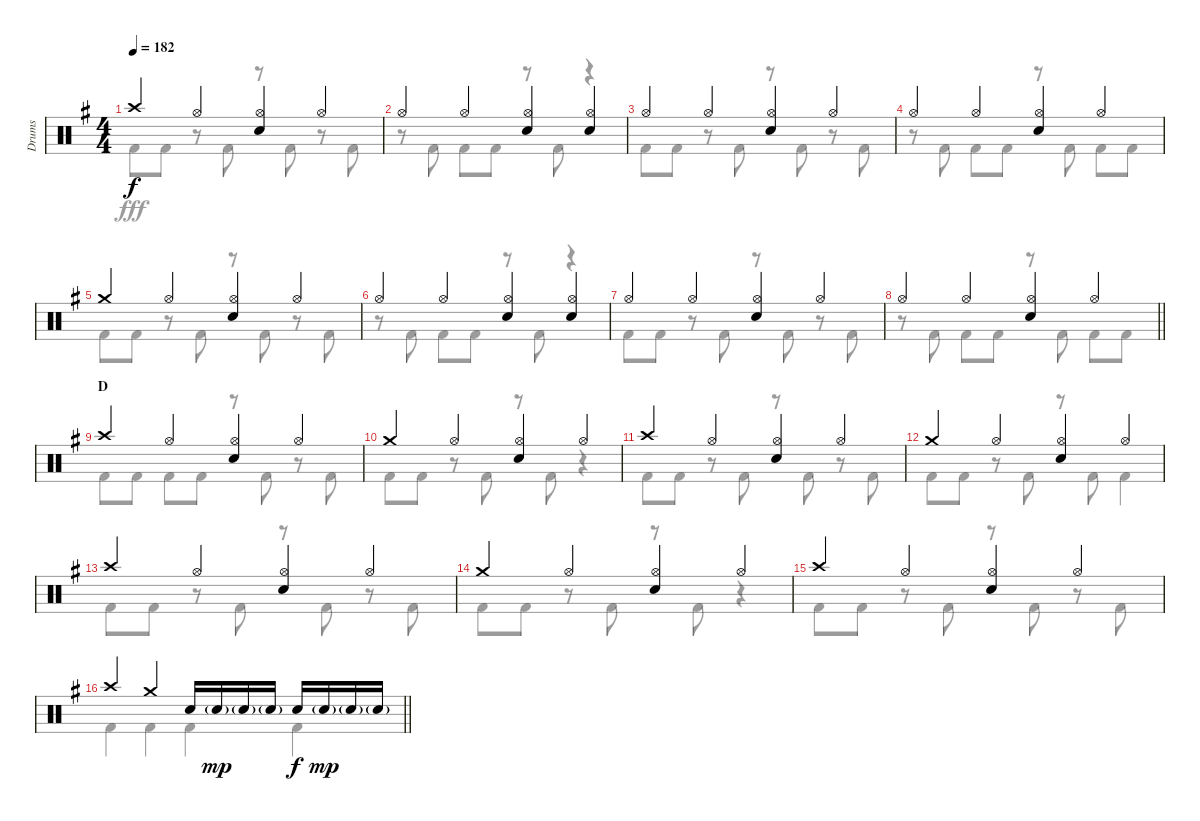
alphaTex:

\track ("Drums" "Drums") {instrument percussion}
\staff {score}
\articulation defaults
\voice
\ts (4 4)
\tempo 182
\clef neutral
\ks g "Crash high (hit)".4{dy f} "Hi-Hat (open)".4
("Hi-Hat (open)" "Snare (hit) 2").4 "Hi-Hat (open)".4 |
"Hi-Hat (open)".4 "Hi-Hat (open)".4 ("Hi-Hat (open)" "Snare (hit) 2").4 ("Hi-Hat (open)" "Snare (hit) 2").4 |
"Hi-Hat (open)".4 "Hi-Hat (open)".4 ("Hi-Hat (open)" "Snare (hit) 2").4 "Hi-Hat (open)".4 |
"Hi-Hat (open)".4 "Hi-Hat (open)".4 ("Hi-Hat (open)" "Snare (hit) 2").4 "Hi-Hat (open)".4 |
"Crash medium (hit)".4 "Hi-Hat (open)".4 ("Hi-Hat (open)" "Snare (hit) 2").4 "Hi-Hat (open)".4 |
"Hi-Hat (open)".4 "Hi-Hat (open)".4 ("Hi-Hat (open)" "Snare (hit) 2").4 ("Hi-Hat (open)" "Snare (hit) 2").4 |
"Hi-Hat (open)".4 "Hi-Hat (open)".4 ("Hi-Hat (open)" "Snare (hit) 2").4 "Hi-Hat (open)".4 |
\barLineRight lightlight "Hi-Hat (open)".4 "Hi-Hat (open)".4
("Hi-Hat (open)" "Snare (hit) 2").4 "Hi-Hat (open)".4 |
\section ("" "D")
"Crash high (hit)".4 "Hi-Hat (open)".4 ("Hi-Hat (open)" "Snare (hit) 2").4 "Hi-Hat (open)".4 |
"Crash medium (hit)".4 "Hi-Hat (open)".4 ("Hi-Hat (open)" "Snare (hit) 2").4 "Hi-Hat (open)".4 |
"Crash high (hit)".4 "Hi-Hat (open)".4 ("Hi-Hat (open)" "Snare (hit) 2").4 "Hi-Hat (open)".4 |
"Crash medium (hit)".4 "Hi-Hat (open)".4 ("Hi-Hat (open)" "Snare (hit) 2").4 "Hi-Hat (open)".4 |
"Crash high (hit)".4 "Hi-Hat (open)".4 ("Hi-Hat (open)" "Snare (hit) 2").4 "Hi-Hat (open)".4 |
"Crash medium (hit)".4 "Hi-Hat (open)".4 ("Hi-Hat (open)" "Snare (hit) 2").4 "Hi-Hat (open)".4 |
"Crash high (hit)".4 "Hi-Hat (open)".4 ("Hi-Hat (open)" "Snare (hit) 2").4 "Hi-Hat (open)".4 |
\barLineRight lightlight "Crash high (hit)".4 "Crash medium (hit)".4 "Snare (hit) 2".16 "Snare (hit) 2"{g}.16{dy mp} "Snare (hit) 2"{g}.16 "Snare (hit) 2"{g}.16 "Snare (hit) 2".16{dy f} "Snare (hit) 2"{g}.16{dy mp} "Snare (hit) 2"{g}.16 "Snare (hit) 2"{g}.16
\voice
\clef neutral
\ottava regular
\simile none
\ks g "Kick (hit) 2".8{dy fff} "Kick (hit) 2".8
r.8 "Kick (hit) 2".8 r.8 "Kick (hit) 2".8 r.8 "Kick (hit) 2".8 |
r.8 "Kick (hit) 2".8 "Kick (hit) 2".8 "Kick (hit) 2".8 r.8 "Kick (hit) 2".8 r.4 |
"Kick (hit) 2".8 "Kick (hit) 2".8 r.8 "Kick (hit) 2".8 r.8 "Kick (hit) 2".8 r.8 "Kick (hit) 2".8 |
r.8 "Kick (hit) 2".8 "Kick (hit) 2".8 "Kick (hit) 2".8 r.8 "Kick (hit) 2".8 "Kick (hit) 2".8 "Kick (hit) 2".8 |
"Kick (hit) 2".8 "Kick (hit) 2".8 r.8 "Kick (hit) 2".8 r.8 "Kick (hit) 2".8 r.8 "Kick (hit) 2".8 |
r.8 "Kick (hit) 2".8 "Kick (hit) 2".8 "Kick (hit) 2".8 r.8 "Kick (hit) 2".8 r.4 |
"Kick (hit) 2".8 "Kick (hit) 2".8 r.8 "Kick (hit) 2".8 r.8 "Kick (hit) 2".8 r.8 "Kick (hit) 2".8 |
\barLineRight lightlight
r.8 "Kick (hit) 2".8 "Kick (hit) 2".8 "Kick (hit) 2".8 r.8 "Kick (hit) 2".8 "Kick (hit) 2".8 "Kick (hit) 2".8 |
"Kick (hit) 2".8 "Kick (hit) 2".8 "Kick (hit) 2".8 "Kick (hit) 2".8 r.8 "Kick (hit) 2".8 r.8 "Kick (hit) 2".8 |
"Kick (hit) 2".8 "Kick (hit) 2".8 r.8 "Kick (hit) 2".8 r.8 "Kick (hit) 2".8 r.4 |
"Kick (hit) 2".8 "Kick (hit) 2".8 r.8 "Kick (hit) 2".8 r.8 "Kick (hit) 2".8 r.8 "Kick (hit) 2".8 |
"Kick (hit) 2".8 "Kick (hit) 2".8 r.8 "Kick (hit) 2".8 r.8 "Kick (hit) 2".8 "Kick (hit) 2".4 |
"Kick (hit) 2".8 "Kick (hit) 2".8 r.8 "Kick (hit) 2".8 r.8 "Kick (hit) 2".8 r.8 "Kick (hit) 2".8 |
"Kick (hit) 2".8 "Kick (hit) 2".8 r.8 "Kick (hit) 2".8 r.8 "Kick (hit) 2".8 r.4 |
"Kick (hit) 2".8 "Kick (hit) 2".8 r.8 "Kick (hit) 2".8 r.8 "Kick (hit) 2".8 r.8 "Kick (hit) 2".8 |
\barLineRight lightlight "Kick (hit) 2".4 "Kick (hit) 2".4 "Kick (hit) 2".4 "Kick (hit) 2".4
